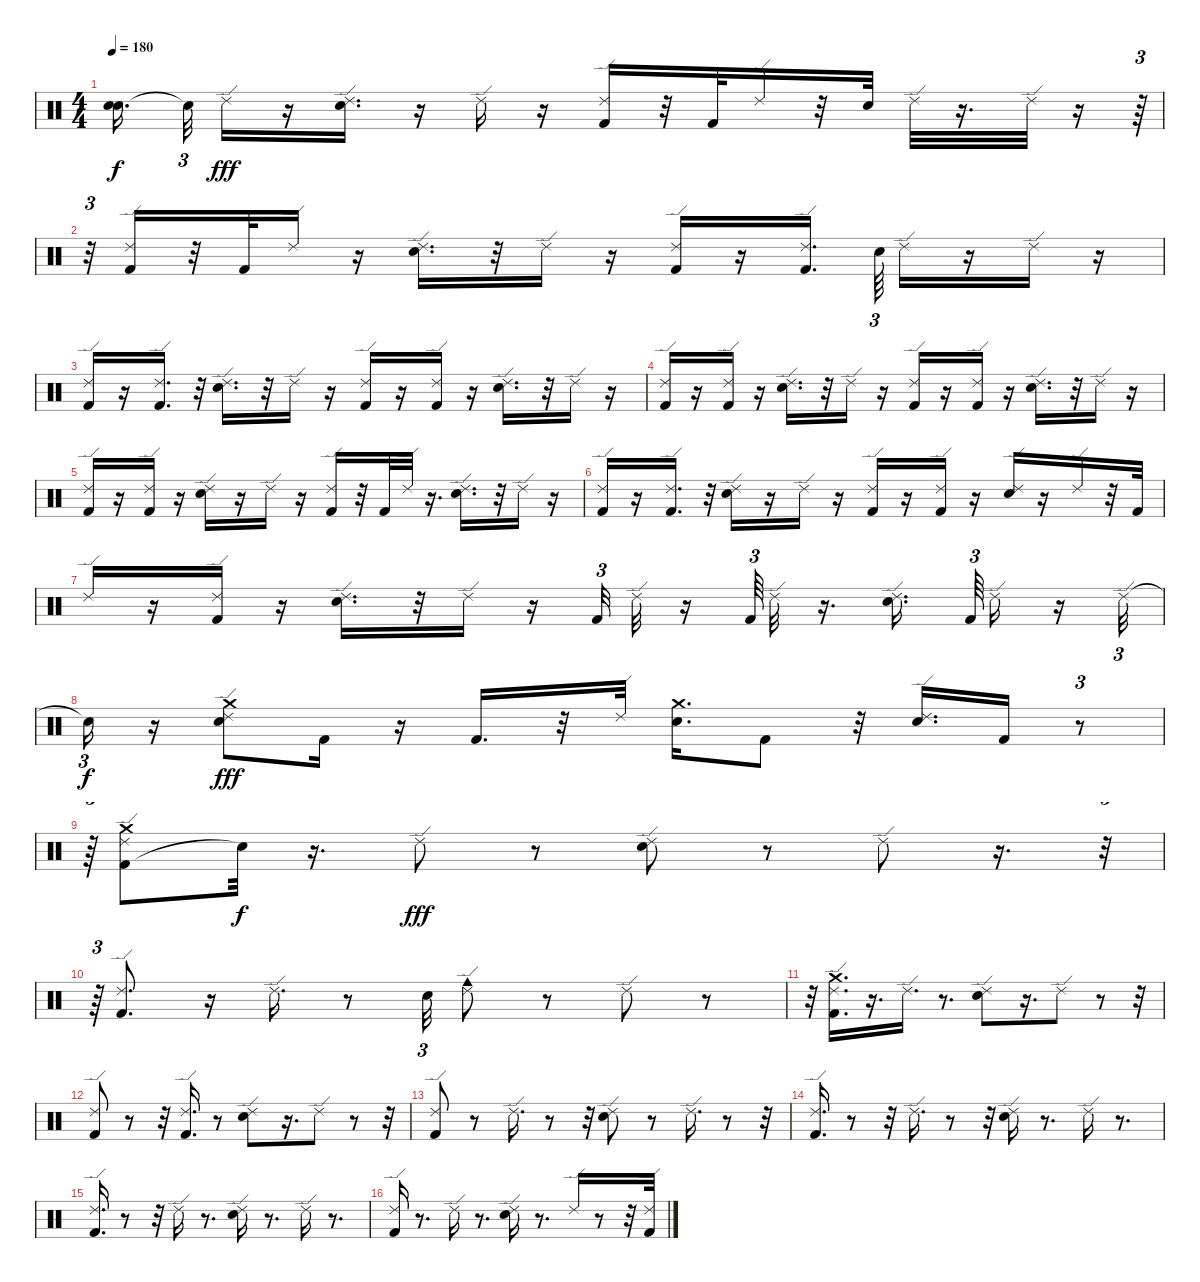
\track "" {instrument percussion}
\staff {score}
\articulation defaults
\ts (4 4)
\tempo 180
\clef neutral
\ks c
("Snare (hit)"{t} "Snare (hit)"{t}).16{d dy f beam splitsecondary} "Snare (hit)"{t}.32{tu (3 2)} "Ride (edge) 2".16{dy fff} r.16 ("Ride (edge) 2" "Snare (hit) 2").16{d} r.16 "Ride (edge) 2".16 r.16 ("Kick (hit) 2" "Ride (edge) 2").16 r.32 "Kick (hit) 2".32 "Ride (edge) 2".16 r.32 "Snare (hit) 2".32 "Ride (edge) 2".32 r.16{d} "Ride (edge) 2".32 r.16 r.64{tu (3 2)} |
r.32{tu (3 2)} ("Kick (hit) 2" "Ride (edge) 2").16 r.32 "Kick (hit) 2".32 "Ride (edge) 2".16 r.16 ("Ride (edge) 2" "Snare (hit) 2").16{d} r.32 "Ride (edge) 2".16 r.16 ("Kick (hit) 2" "Ride (edge) 2").16 r.16 ("Kick (hit) 2" "Ride (edge) 2").16{d} "Snare (hit) 2".64{tu (3 2)} "Ride (edge) 2".16 r.16 "Ride (edge) 2".16 r.16 |
("Kick (hit) 2" "Ride (edge) 2").16 r.16 ("Kick (hit) 2" "Ride (edge) 2").16{d} r.32 ("Ride (edge) 2" "Snare (hit) 2").16{d} r.32 "Ride (edge) 2".16 r.16 ("Kick (hit) 2" "Ride (edge) 2").16 r.16 ("Kick (hit) 2" "Ride (edge) 2").16 r.16 ("Ride (edge) 2" "Snare (hit) 2").16{d} r.32 "Ride (edge) 2".16 r.16 |
("Kick (hit) 2" "Ride (edge) 2").16 r.16 ("Kick (hit) 2" "Ride (edge) 2").16 r.16 ("Ride (edge) 2" "Snare (hit) 2").16{d} r.32 "Ride (edge) 2".16 r.16 ("Kick (hit) 2" "Ride (edge) 2").16 r.16 ("Kick (hit) 2" "Ride (edge) 2").16 r.16 ("Ride (edge) 2" "Snare (hit) 2").16{d} r.32 "Ride (edge) 2".16 r.16 |
("Kick (hit) 2" "Ride (edge) 2").16 r.16 ("Kick (hit) 2" "Ride (edge) 2").16 r.16 ("Ride (edge) 2" "Snare (hit) 2").16 r.16 "Ride (edge) 2".16 r.16 ("Kick (hit) 2" "Ride (edge) 2").16 r.32 "Kick (hit) 2".32 "Ride (edge) 2".32 r.16{d} ("Ride (edge) 2" "Snare (hit) 2").16{d} r.32 "Ride (edge) 2".16 r.16 |
("Kick (hit) 2" "Ride (edge) 2").16 r.16 ("Kick (hit) 2" "Ride (edge) 2").16{d} r.32 ("Ride (edge) 2" "Snare (hit) 2").16 r.16 "Ride (edge) 2".16 r.16 ("Kick (hit) 2" "Ride (edge) 2").16 r.16 ("Kick (hit) 2" "Ride (edge) 2").16 r.16 ("Ride (edge) 2" "Snare (hit) 2").16 r.16 "Ride (edge) 2".16 r.32 "Kick (hit) 2".32 |
"Ride (edge) 2".16 r.16 ("Kick (hit) 2" "Ride (edge) 2").16 r.16 ("Ride (edge) 2" "Snare (hit) 2").16{d} r.32 "Ride (edge) 2".16 r.16 "Kick (hit) 2".32{tu (3 2)} "Ride (edge) 2".32 r.16 "Kick (hit) 2".64{tu (3 2)} "Ride (edge) 2".32 r.16{d} ("Ride (edge) 2" "Snare (hit) 2").16{d beam splitsecondary} "Kick (hit) 2".64{tu (3 2)} "Ride (edge) 2".16 r.16 "Ride (edge) 2".32{tu (3 2)} |
"Snare (hit)"{t}.16{tu (3 2) dy f} r.16 ("Ride (edge) 2" "Crash medium (hit)" "Snare (hit) 2").8{dy fff} "Kick (hit) 2".16 r.16 "Kick (hit) 2".16{d} r.32 "Ride (edge) 2".32 ("Crash medium (hit)" "Snare (hit) 2").16{d} "Kick (hit) 2".8 r.32 ("Ride (edge) 2" "Snare (hit) 2").16{d} "Kick (hit) 2".16 r.8{tu (3 2)} |
r.64{tu (3 2)} ("Kick (hit) 2" "Ride (edge) 2" "Crash medium (hit)").8 "Snare (hit)"{t}.32{dy f} r.16{d} "Ride (edge) 2".8{dy fff} r.8 ("Snare (hit) 2" "Ride (edge) 2").8 r.8 "Ride (edge) 2".8 r.16{d} r.32{tu (3 2)} |
r.64{tu (3 2)} ("Kick (hit) 2" "Ride (edge) 2").8{d} r.16 "Ride (edge) 2".16{d} r.8 "Snare (hit) 2".32{tu (3 2)} ("Ride (edge) 2" "Cowbell medium (hit)").8 r.8 "Ride (edge) 2".8 r.8 |
r.32 ("Kick (hit) 2" "Ride (edge) 2" "Crash medium (hit)").16{d} r.16{d} "Ride (edge) 2".16{d} r.8{d} ("Ride (edge) 2" "Snare (hit) 2").8 r.16{d} "Ride (edge) 2".8 r.8 r.32 |
("Kick (hit) 2" "Ride (edge) 2").8 r.8 r.32 ("Kick (hit) 2" "Ride (edge) 2").16{d} r.8 ("Ride (edge) 2" "Snare (hit) 2").8 r.16{d} "Ride (edge) 2".8 r.8 r.32 |
("Kick (hit) 2" "Ride (edge) 2").8 r.8 "Ride (edge) 2".16{d} r.8 r.32 ("Snare (hit) 2" "Ride (edge) 2").8 r.8 "Ride (edge) 2".16{d} r.8 r.32 |
("Kick (hit) 2" "Ride (edge) 2").16{d} r.8 r.32 "Ride (edge) 2".16{d} r.8 r.32 ("Ride (edge) 2" "Snare (hit) 2").16 r.8{d} "Ride (edge) 2".16 r.8{d} |
("Kick (hit) 2" "Ride (edge) 2").16{d} r.8 r.32 "Ride (edge) 2".16 r.8{d} ("Ride (edge) 2" "Snare (hit) 2").16 r.8{d} "Ride (edge) 2".16 r.8{d} |
("Kick (hit) 2" "Ride (edge) 2").16 r.8{d} "Ride (edge) 2".16 r.8{d} ("Ride (edge) 2" "Snare (hit) 2").16 r.8{d} "Ride (edge) 2".16 r.8 r.32 ("Kick (hit) 2" "Ride (edge) 2").32
